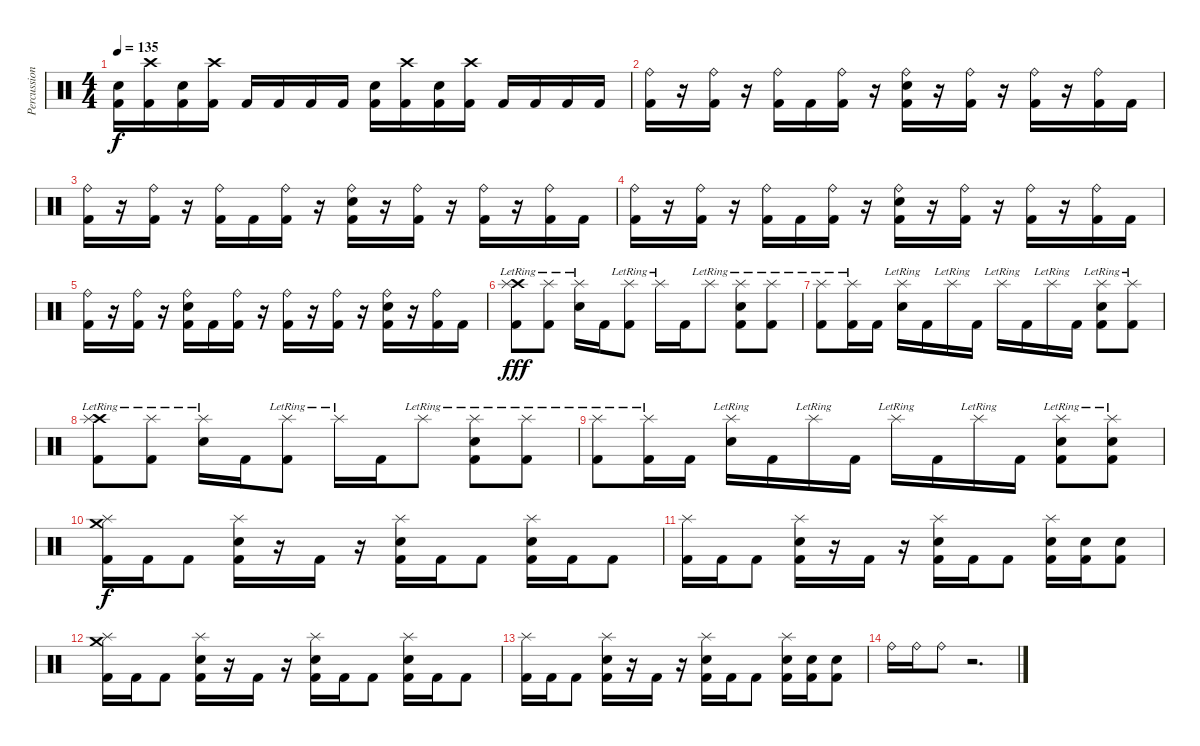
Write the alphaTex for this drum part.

\track ("Percussion" "Percussion") {instrument percussion}
\staff {score}
\articulation defaults
\ts (4 4)
\tempo 135
\clef neutral
\ks c
("Electric Snare (hit)" "Kick (hit) 2").16{dy f} ("Crash high (hit)" "Kick (hit) 2").16 ("Electric Snare (hit)" "Kick (hit) 2").16 ("Crash high (hit)" "Kick (hit) 2").16 "Kick (hit) 2".16 "Kick (hit) 2".16 "Kick (hit) 2".16 "Kick (hit) 2".16 ("Electric Snare (hit)" "Kick (hit) 2").16 ("Crash high (hit)" "Kick (hit) 2").16 ("Electric Snare (hit)" "Kick (hit) 2").16 ("Crash high (hit)" "Kick (hit) 2").16 "Kick (hit) 2".16 "Kick (hit) 2".16 "Kick (hit) 2".16 "Kick (hit) 2".16 |
("Ride (bell)" "Kick (hit) 2").16 r.16 ("Ride (bell)" "Kick (hit) 2").16 r.16 ("Ride (bell)" "Kick (hit) 2").16 "Kick (hit) 2".16 ("Ride (bell)" "Kick (hit) 2").16 r.16 ("Ride (bell)" "Electric Snare (hit)" "Kick (hit) 2").16 r.16 ("Ride (bell)" "Kick (hit) 2").16 r.16 ("Ride (bell)" "Kick (hit) 2").16 r.16 ("Ride (bell)" "Kick (hit) 2").16 "Kick (hit) 2".16 |
("Ride (bell)" "Kick (hit) 2").16 r.16 ("Ride (bell)" "Kick (hit) 2").16 r.16 ("Ride (bell)" "Kick (hit) 2").16 "Kick (hit) 2".16 ("Ride (bell)" "Kick (hit) 2").16 r.16 ("Ride (bell)" "Electric Snare (hit)" "Kick (hit) 2").16 r.16 ("Ride (bell)" "Kick (hit) 2").16 r.16 ("Ride (bell)" "Kick (hit) 2").16 r.16 ("Ride (bell)" "Kick (hit) 2").16 "Kick (hit) 2".16 |
("Ride (bell)" "Kick (hit) 2").16 r.16 ("Ride (bell)" "Kick (hit) 2").16 r.16 ("Ride (bell)" "Kick (hit) 2").16 "Kick (hit) 2".16 ("Ride (bell)" "Kick (hit) 2").16 r.16 ("Ride (bell)" "Electric Snare (hit)" "Kick (hit) 2").16 r.16 ("Ride (bell)" "Kick (hit) 2").16 r.16 ("Ride (bell)" "Kick (hit) 2").16 r.16 ("Ride (bell)" "Kick (hit) 2").16 "Kick (hit) 2".16 |
("Ride (bell)" "Kick (hit) 2").16 r.16 ("Ride (bell)" "Kick (hit) 2").16 r.16 ("Ride (bell)" "Electric Snare (hit)" "Kick (hit) 2").16 "Kick (hit) 2".16 ("Ride (bell)" "Kick (hit) 2").16 r.16 ("Ride (bell)" "Kick (hit) 2").16 r.16 ("Ride (bell)" "Kick (hit) 2").16 r.16 ("Ride (bell)" "Electric Snare (hit)" "Kick (hit) 2").16 r.16 ("Ride (bell)" "Kick (hit) 2").16 "Kick (hit) 2".16 |
("Crash high (hit)"{lr} "Splash (hit)"{lr} "Kick (hit) 2").8{dy fff} ("Splash (hit)"{lr} "Kick (hit) 2").8 ("Splash (hit)"{lr} "Electric Snare (hit)").16 "Kick (hit) 2".16 ("Splash (hit)"{lr} "Kick (hit) 2").8 "Splash (hit)"{lr}.16 "Kick (hit) 2".16 "Splash (hit)"{lr}.8 ("Splash (hit)"{lr} "Electric Snare (hit)" "Kick (hit) 2").8 ("Splash (hit)"{lr} "Kick (hit) 2").8 |
("Splash (hit)"{lr} "Kick (hit) 2").8 ("Splash (hit)"{lr} "Kick (hit) 2").16 "Kick (hit) 2".16 ("Splash (hit)"{lr} "Electric Snare (hit)").16 "Kick (hit) 2".16 "Splash (hit)"{lr}.16 "Kick (hit) 2".16 "Splash (hit)"{lr}.16 "Kick (hit) 2".16 "Splash (hit)"{lr}.16 "Kick (hit) 2".16 ("Splash (hit)"{lr} "Electric Snare (hit)" "Kick (hit) 2").8 ("Splash (hit)"{lr} "Kick (hit) 2").8 |
("Crash high (hit)"{lr} "Splash (hit)"{lr} "Kick (hit) 2").8 ("Splash (hit)"{lr} "Kick (hit) 2").8 ("Splash (hit)"{lr} "Electric Snare (hit)").16 "Kick (hit) 2".16 ("Splash (hit)"{lr} "Kick (hit) 2").8 "Splash (hit)"{lr}.16 "Kick (hit) 2".16 "Splash (hit)"{lr}.8 ("Splash (hit)"{lr} "Electric Snare (hit)" "Kick (hit) 2").8 ("Splash (hit)"{lr} "Kick (hit) 2").8 |
("Splash (hit)"{lr} "Kick (hit) 2").8 ("Splash (hit)"{lr} "Kick (hit) 2").16 "Kick (hit) 2".16 ("Splash (hit)"{lr} "Electric Snare (hit)").16 "Kick (hit) 2".16 "Splash (hit)"{lr}.16 "Kick (hit) 2".16 "Splash (hit)"{lr}.16 "Kick (hit) 2".16 "Splash (hit)"{lr}.16 "Kick (hit) 2".16 ("Splash (hit)"{lr} "Electric Snare (hit)" "Kick (hit) 2").8 ("Splash (hit)"{lr} "Electric Snare (hit)" "Kick (hit) 2").8 |
("Splash (hit)" "Crash medium (hit)" "Kick (hit) 2").16{dy f} "Kick (hit) 2".16 "Kick (hit) 2".8 ("Splash (hit)" "Electric Snare (hit)" "Kick (hit) 2").16 r.16 "Kick (hit) 2".16 r.16 ("Splash (hit)" "Electric Snare (hit)" "Kick (hit) 2").16 "Kick (hit) 2".16 "Kick (hit) 2".8 ("Splash (hit)" "Electric Snare (hit)" "Kick (hit) 2").16 "Kick (hit) 2".16 "Kick (hit) 2".8 |
("Splash (hit)" "Kick (hit) 2").16 "Kick (hit) 2".16 "Kick (hit) 2".8 ("Splash (hit)" "Electric Snare (hit)" "Kick (hit) 2").16 r.16 "Kick (hit) 2".16 r.16 ("Splash (hit)" "Electric Snare (hit)" "Kick (hit) 2").16 "Kick (hit) 2".16 "Kick (hit) 2".8 ("Splash (hit)" "Electric Snare (hit)" "Kick (hit) 2").16 ("Electric Snare (hit)" "Kick (hit) 2").16 ("Electric Snare (hit)" "Kick (hit) 2").8 |
("Splash (hit)" "Crash medium (hit)" "Kick (hit) 2").16 "Kick (hit) 2".16 "Kick (hit) 2".8 ("Splash (hit)" "Electric Snare (hit)" "Kick (hit) 2").16 r.16 "Kick (hit) 2".16 r.16 ("Splash (hit)" "Electric Snare (hit)" "Kick (hit) 2").16 "Kick (hit) 2".16 "Kick (hit) 2".8 ("Splash (hit)" "Electric Snare (hit)" "Kick (hit) 2").16 "Kick (hit) 2".16 "Kick (hit) 2".8 |
("Splash (hit)" "Kick (hit) 2").16 "Kick (hit) 2".16 "Kick (hit) 2".8 ("Splash (hit)" "Electric Snare (hit)" "Kick (hit) 2").16 r.16 "Kick (hit) 2".16 r.16 ("Splash (hit)" "Electric Snare (hit)" "Kick (hit) 2").16 "Kick (hit) 2".16 "Kick (hit) 2".8 ("Splash (hit)" "Electric Snare (hit)" "Kick (hit) 2").16 ("Electric Snare (hit)" "Kick (hit) 2").16 ("Electric Snare (hit)" "Kick (hit) 2").8 |
"Ride (bell)".16 "Ride (bell)".16 "Ride (bell)".8 r.2{d}
